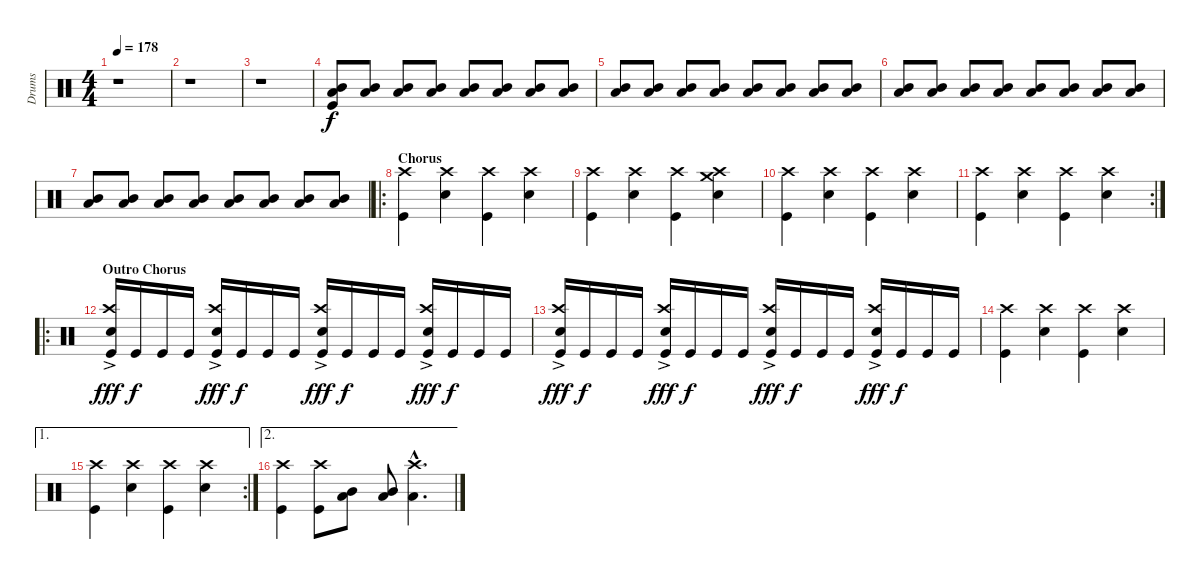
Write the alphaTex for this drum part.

\track ("Drums" "Drums") {instrument percussion}
\staff {score}
\articulation defaults
\ts (4 4)
\tempo 178
\clef neutral
\ks c
r.1{dy fff} |
r.1 |
r.1{volume 3} |
("Mid Tom (hit)" "Low Floor Tom (hit)" "Kick (hit)").8{dy f volume 8} ("Mid Tom (hit)" "Low Floor Tom (hit)").8 ("Mid Tom (hit)" "Low Floor Tom (hit)").8 ("Mid Tom (hit)" "Low Floor Tom (hit)").8 ("Mid Tom (hit)" "Low Floor Tom (hit)").8 ("Mid Tom (hit)" "Low Floor Tom (hit)").8 ("Mid Tom (hit)" "Low Floor Tom (hit)").8 ("Mid Tom (hit)" "Low Floor Tom (hit)").8 |
("Mid Tom (hit)" "Low Floor Tom (hit)").8 ("Mid Tom (hit)" "Low Floor Tom (hit)").8 ("Mid Tom (hit)" "Low Floor Tom (hit)").8 ("Mid Tom (hit)" "Low Floor Tom (hit)").8 ("Mid Tom (hit)" "Low Floor Tom (hit)").8 ("Mid Tom (hit)" "Low Floor Tom (hit)").8 ("Mid Tom (hit)" "Low Floor Tom (hit)").8 ("Mid Tom (hit)" "Low Floor Tom (hit)").8 |
("Mid Tom (hit)" "Low Floor Tom (hit)").8{volume 16} ("Mid Tom (hit)" "Low Floor Tom (hit)").8 ("Mid Tom (hit)" "Low Floor Tom (hit)").8 ("Mid Tom (hit)" "Low Floor Tom (hit)").8 ("Mid Tom (hit)" "Low Floor Tom (hit)").8 ("Mid Tom (hit)" "Low Floor Tom (hit)").8 ("Mid Tom (hit)" "Low Floor Tom (hit)").8 ("Mid Tom (hit)" "Low Floor Tom (hit)").8 |
("Mid Tom (hit)" "Low Floor Tom (hit)").8 ("Mid Tom (hit)" "Low Floor Tom (hit)").8 ("Mid Tom (hit)" "Low Floor Tom (hit)").8 ("Mid Tom (hit)" "Low Floor Tom (hit)").8 ("Mid Tom (hit)" "Low Floor Tom (hit)").8 ("Mid Tom (hit)" "Low Floor Tom (hit)").8 ("Mid Tom (hit)" "Low Floor Tom (hit)").8 ("Mid Tom (hit)" "Low Floor Tom (hit)").8 |
\ro
\section ("" "Chorus")
("Crash high (hit)" "Kick (hit)").4 ("Crash high (hit)" "Snare (hit) 2").4 ("Crash high (hit)" "Kick (hit)").4 ("Crash high (hit)" "Snare (hit) 2").4 |
("Crash high (hit)" "Kick (hit)").4 ("Crash high (hit)" "Snare (hit) 2").4 ("Crash high (hit)" "Kick (hit)").4 ("Crash high (hit)" "Crash medium (hit)" "Snare (hit) 2").4 |
("Crash high (hit)" "Kick (hit)").4 ("Crash high (hit)" "Snare (hit) 2").4 ("Crash high (hit)" "Kick (hit)").4 ("Crash high (hit)" "Snare (hit) 2").4 |
\rc 2
("Crash high (hit)" "Kick (hit)").4 ("Crash high (hit)" "Snare (hit) 2").4 ("Crash high (hit)" "Kick (hit)").4 ("Crash high (hit)" "Snare (hit) 2").4 |
\ro
\section ("" "Outro Chorus")
("Crash high (hit)"{ac} "Snare (hit) 2" "Kick (hit)").16{dy fff} "Kick (hit)".16{dy f} "Kick (hit)".16 "Kick (hit)".16 ("Crash high (hit)"{ac} "Snare (hit) 2" "Kick (hit)").16{dy fff} "Kick (hit)".16{dy f} "Kick (hit)".16 "Kick (hit)".16 ("Crash high (hit)"{ac} "Snare (hit) 2" "Kick (hit)").16{dy fff} "Kick (hit)".16{dy f} "Kick (hit)".16 "Kick (hit)".16 ("Crash high (hit)"{ac} "Snare (hit) 2" "Kick (hit)").16{dy fff} "Kick (hit)".16{dy f} "Kick (hit)".16 "Kick (hit)".16 |
("Crash high (hit)"{ac} "Snare (hit) 2" "Kick (hit)").16{dy fff} "Kick (hit)".16{dy f} "Kick (hit)".16 "Kick (hit)".16 ("Crash high (hit)"{ac} "Snare (hit) 2" "Kick (hit)").16{dy fff} "Kick (hit)".16{dy f} "Kick (hit)".16 "Kick (hit)".16 ("Crash high (hit)"{ac} "Snare (hit) 2" "Kick (hit)").16{dy fff} "Kick (hit)".16{dy f} "Kick (hit)".16 "Kick (hit)".16 ("Crash high (hit)"{ac} "Snare (hit) 2" "Kick (hit)").16{dy fff} "Kick (hit)".16{dy f} "Kick (hit)".16 "Kick (hit)".16 |
("Crash high (hit)" "Kick (hit)").4 ("Crash high (hit)" "Snare (hit) 2").4 ("Crash high (hit)" "Kick (hit)").4 ("Crash high (hit)" "Snare (hit) 2").4 |
\ae 1
\rc 2
("Crash high (hit)" "Kick (hit)").4 ("Crash high (hit)" "Snare (hit) 2").4 ("Crash high (hit)" "Kick (hit)").4 ("Crash high (hit)" "Snare (hit) 2").4 |
\ae 2
("Crash high (hit)" "Kick (hit)").4 ("Crash high (hit)" "Kick (hit)").8 ("Mid Tom (hit)" "Low Floor Tom (hit)").8 ("Mid Tom (hit)" "Low Floor Tom (hit)").8 ("Crash high (hit)"{hac} "Low Floor Tom (hit)"{hac}).4{d}
